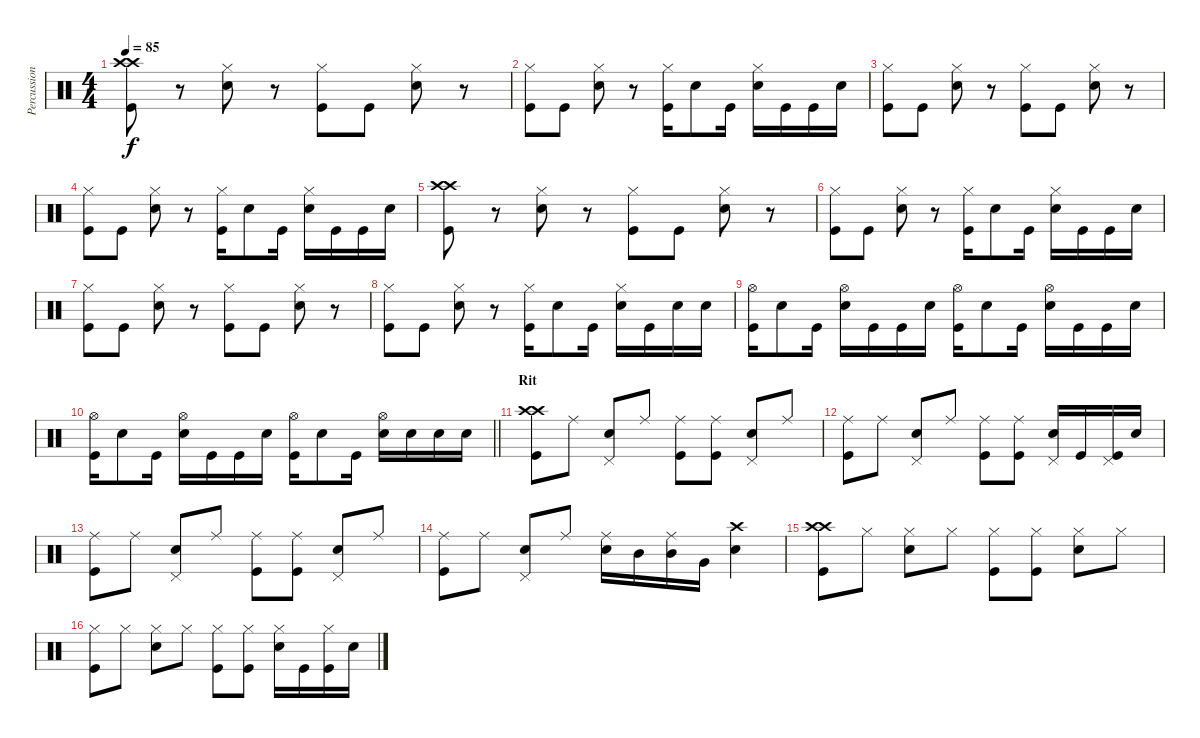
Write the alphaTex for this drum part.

\track ("Percussioni" "Percussion") {instrument percussion}
\staff {score}
\articulation defaults
\ts (4 4)
\tempo 85
\clef neutral
\ks c
("Crash high (hit)" "Crash high (hit)" "Kick (hit)").8{dy f} r.8 ("Hi-Hat (closed)" "Snare (hit) 2").8 r.8 ("Hi-Hat (closed)" "Kick (hit)").8 "Kick (hit)".8 ("Hi-Hat (closed)" "Snare (hit) 2").8 r.8 |
("Hi-Hat (closed)" "Kick (hit)").8 "Kick (hit)".8 ("Hi-Hat (closed)" "Snare (hit) 2").8 r.8 ("Hi-Hat (closed)" "Kick (hit)").16 "Snare (hit) 2".8 "Kick (hit)".16 ("Hi-Hat (closed)" "Snare (hit) 2").16 "Kick (hit)".16 "Kick (hit)".16 "Snare (hit) 2".16 |
("Hi-Hat (closed)" "Kick (hit)").8 "Kick (hit)".8 ("Hi-Hat (closed)" "Snare (hit) 2").8 r.8 ("Hi-Hat (closed)" "Kick (hit)").8 "Kick (hit)".8 ("Hi-Hat (closed)" "Snare (hit) 2").8 r.8 |
("Hi-Hat (closed)" "Kick (hit)").8 "Kick (hit)".8 ("Hi-Hat (closed)" "Snare (hit) 2").8 r.8 ("Hi-Hat (closed)" "Kick (hit)").16 "Snare (hit) 2".8 "Kick (hit)".16 ("Hi-Hat (closed)" "Snare (hit) 2").16 "Kick (hit)".16 "Kick (hit)".16 "Snare (hit) 2".16 |
("Crash high (hit)" "Crash high (hit)" "Kick (hit)").8 r.8 ("Hi-Hat (closed)" "Snare (hit) 2").8 r.8 ("Hi-Hat (closed)" "Kick (hit)").8 "Kick (hit)".8 ("Hi-Hat (closed)" "Snare (hit) 2").8 r.8 |
("Hi-Hat (closed)" "Kick (hit)").8 "Kick (hit)".8 ("Hi-Hat (closed)" "Snare (hit) 2").8 r.8 ("Hi-Hat (closed)" "Kick (hit)").16 "Snare (hit) 2".8 "Kick (hit)".16 ("Hi-Hat (closed)" "Snare (hit) 2").16 "Kick (hit)".16 "Kick (hit)".16 "Snare (hit) 2".16 |
("Hi-Hat (closed)" "Kick (hit)").8 "Kick (hit)".8 ("Hi-Hat (closed)" "Snare (hit) 2").8 r.8 ("Hi-Hat (closed)" "Kick (hit)").8 "Kick (hit)".8 ("Hi-Hat (closed)" "Snare (hit) 2").8 r.8 |
("Hi-Hat (closed)" "Kick (hit)").8 "Kick (hit)".8 ("Hi-Hat (closed)" "Snare (hit) 2").8 r.8 ("Hi-Hat (closed)" "Kick (hit)").16 "Snare (hit) 2".8 "Kick (hit)".16 ("Hi-Hat (closed)" "Snare (hit) 2").16 "Kick (hit)".16 "Snare (hit) 2".16 "Snare (hit) 2".16 |
("Hi-Hat (open)" "Kick (hit)").16 "Snare (hit) 2".8 "Kick (hit)".16 ("Hi-Hat (open)" "Snare (hit) 2").16 "Kick (hit)".16 "Kick (hit)".16 "Snare (hit) 2".16 ("Hi-Hat (open)" "Kick (hit)").16 "Snare (hit) 2".8 "Kick (hit)".16 ("Hi-Hat (open)" "Snare (hit) 2").16 "Kick (hit)".16 "Kick (hit)".16 "Snare (hit) 2".16 |
\barLineRight lightlight
("Hi-Hat (open)" "Kick (hit)").16 "Snare (hit) 2".8 "Kick (hit)".16 ("Hi-Hat (open)" "Snare (hit) 2").16 "Kick (hit)".16 "Kick (hit)".16 "Snare (hit) 2".16 ("Hi-Hat (open)" "Kick (hit)").16 "Snare (hit) 2".8 "Kick (hit)".16 ("Hi-Hat (open)" "Snare (hit) 2").16 "Snare (hit) 2".16 "Snare (hit) 2".16 "Snare (hit) 2".16 |
\section ("" "Rit")
("Crash high (hit)" "Crash high (hit)" "Kick (hit)").8 "Ride (middle)".8 ("Pedal Hi-Hat (hit)" "Snare (hit) 2").8 "Ride (middle)".8 ("Ride (middle)" "Kick (hit)").8 ("Ride (middle)" "Kick (hit)").8 ("Pedal Hi-Hat (hit)" "Snare (hit) 2").8 "Ride (middle)".8 |
("Ride (middle)" "Kick (hit)").8 "Ride (middle)".8 ("Pedal Hi-Hat (hit)" "Snare (hit) 2").8 "Ride (middle)".8 ("Ride (middle)" "Kick (hit)").8 ("Ride (middle)" "Kick (hit)").8 ("Pedal Hi-Hat (hit)" "Snare (hit) 2").16 "Kick (hit)".16 ("Pedal Hi-Hat (hit)" "Kick (hit)").16 "Snare (hit) 2".16 |
("Ride (middle)" "Kick (hit)").8 "Ride (middle)".8 ("Pedal Hi-Hat (hit)" "Snare (hit) 2").8 "Ride (middle)".8 ("Ride (middle)" "Kick (hit)").8 ("Ride (middle)" "Kick (hit)").8 ("Pedal Hi-Hat (hit)" "Snare (hit) 2").8 "Ride (middle)".8 |
("Ride (middle)" "Kick (hit)").8 "Ride (middle)".8 ("Pedal Hi-Hat (hit)" "Snare (hit) 2").8 "Ride (middle)".8 ("Ride (middle)" "Snare (hit) 2").16 "Mid Tom (hit)".16 ("Ride (middle)" "Mid Tom (hit)").16 "Very Low Tom (hit)".16 ("Crash high (hit)" "Snare (hit) 2").4 |
("Crash high (hit)" "Crash high (hit)" "Kick (hit)").8 "Hi-Hat (closed)".8 ("Hi-Hat (closed)" "Snare (hit) 2").8 "Hi-Hat (closed)".8 ("Hi-Hat (closed)" "Kick (hit)").8 ("Hi-Hat (closed)" "Kick (hit)").8 ("Hi-Hat (closed)" "Snare (hit) 2").8 "Hi-Hat (closed)".8 |
("Hi-Hat (closed)" "Kick (hit)").8 "Hi-Hat (closed)".8 ("Hi-Hat (closed)" "Snare (hit) 2").8 "Hi-Hat (closed)".8 ("Hi-Hat (closed)" "Kick (hit)").8 ("Hi-Hat (closed)" "Kick (hit)").8 ("Hi-Hat (closed)" "Snare (hit) 2").16 "Kick (hit)".16 ("Hi-Hat (closed)" "Kick (hit)").16 "Snare (hit) 2".16
